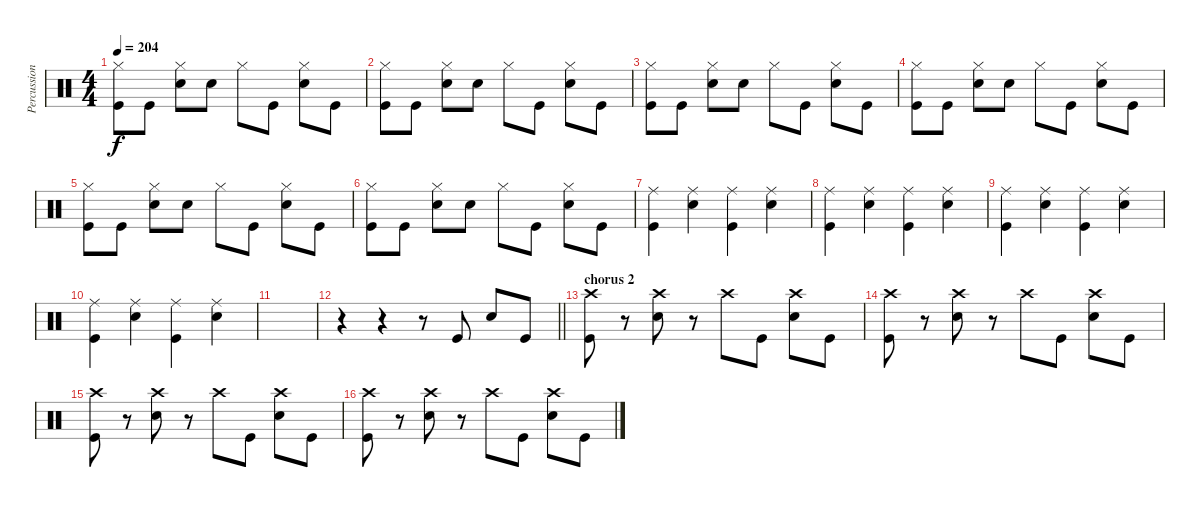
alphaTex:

\track ("Percussion" "Percussion") {instrument percussion}
\staff {score}
\articulation defaults
\ts (4 4)
\tempo 204
\clef neutral
\ks c
("Hi-Hat (closed)" "Kick (hit)").8{dy f} "Kick (hit)".8 ("Hi-Hat (closed)" "Snare (hit) 2").8 "Snare (hit) 2".8 "Hi-Hat (closed)".8 "Kick (hit)".8 ("Hi-Hat (closed)" "Snare (hit) 2").8 "Kick (hit)".8 |
("Hi-Hat (closed)" "Kick (hit)").8 "Kick (hit)".8 ("Hi-Hat (closed)" "Snare (hit) 2").8 "Snare (hit) 2".8 "Hi-Hat (closed)".8 "Kick (hit)".8 ("Hi-Hat (closed)" "Snare (hit) 2").8 "Kick (hit)".8 |
("Hi-Hat (closed)" "Kick (hit)").8 "Kick (hit)".8 ("Hi-Hat (closed)" "Snare (hit) 2").8 "Snare (hit) 2".8 "Hi-Hat (closed)".8 "Kick (hit)".8 ("Hi-Hat (closed)" "Snare (hit) 2").8 "Kick (hit)".8 |
("Hi-Hat (closed)" "Kick (hit)").8 "Kick (hit)".8 ("Hi-Hat (closed)" "Snare (hit) 2").8 "Snare (hit) 2".8 "Hi-Hat (closed)".8 "Kick (hit)".8 ("Hi-Hat (closed)" "Snare (hit) 2").8 "Kick (hit)".8 |
("Hi-Hat (closed)" "Kick (hit)").8 "Kick (hit)".8 ("Hi-Hat (closed)" "Snare (hit) 2").8 "Snare (hit) 2".8 "Hi-Hat (closed)".8 "Kick (hit)".8 ("Hi-Hat (closed)" "Snare (hit) 2").8 "Kick (hit)".8 |
("Hi-Hat (closed)" "Kick (hit)").8 "Kick (hit)".8 ("Hi-Hat (closed)" "Snare (hit) 2").8 "Snare (hit) 2".8 "Hi-Hat (closed)".8 "Kick (hit)".8 ("Hi-Hat (closed)" "Snare (hit) 2").8 "Kick (hit)".8 |
("Ride (middle)" "Kick (hit)").4 ("Ride (middle)" "Snare (hit) 2").4 ("Ride (middle)" "Kick (hit)").4 ("Ride (middle)" "Snare (hit) 2").4 |
("Ride (middle)" "Kick (hit)").4 ("Ride (middle)" "Snare (hit) 2").4 ("Ride (middle)" "Kick (hit)").4 ("Ride (middle)" "Snare (hit) 2").4 |
("Ride (middle)" "Kick (hit)").4 ("Ride (middle)" "Snare (hit) 2").4 ("Ride (middle)" "Kick (hit)").4 ("Ride (middle)" "Snare (hit) 2").4 |
("Ride (middle)" "Kick (hit)").4 ("Ride (middle)" "Snare (hit) 2").4 ("Ride (middle)" "Kick (hit)").4 ("Ride (middle)" "Snare (hit) 2").4 |
|
\barLineRight lightlight
r.4 r.4 r.8 "Kick (hit)".8 "Snare (hit) 2".8 "Kick (hit)".8 |
\section ("" "chorus 2")
("Crash high (hit)" "Kick (hit)").8 r.8 ("Crash high (hit)" "Snare (hit) 2").8 r.8 "Crash high (hit)".8 "Kick (hit)".8 ("Crash high (hit)" "Snare (hit) 2").8 "Kick (hit)".8 |
("Crash high (hit)" "Kick (hit)").8 r.8 ("Crash high (hit)" "Snare (hit) 2").8 r.8 "Crash high (hit)".8 "Kick (hit)".8 ("Crash high (hit)" "Snare (hit) 2").8 "Kick (hit)".8 |
("Crash high (hit)" "Kick (hit)").8 r.8 ("Crash high (hit)" "Snare (hit) 2").8 r.8 "Crash high (hit)".8 "Kick (hit)".8 ("Crash high (hit)" "Snare (hit) 2").8 "Kick (hit)".8 |
("Crash high (hit)" "Kick (hit)").8 r.8 ("Crash high (hit)" "Snare (hit) 2").8 r.8 "Crash high (hit)".8 "Kick (hit)".8 ("Crash high (hit)" "Snare (hit) 2").8 "Kick (hit)".8
